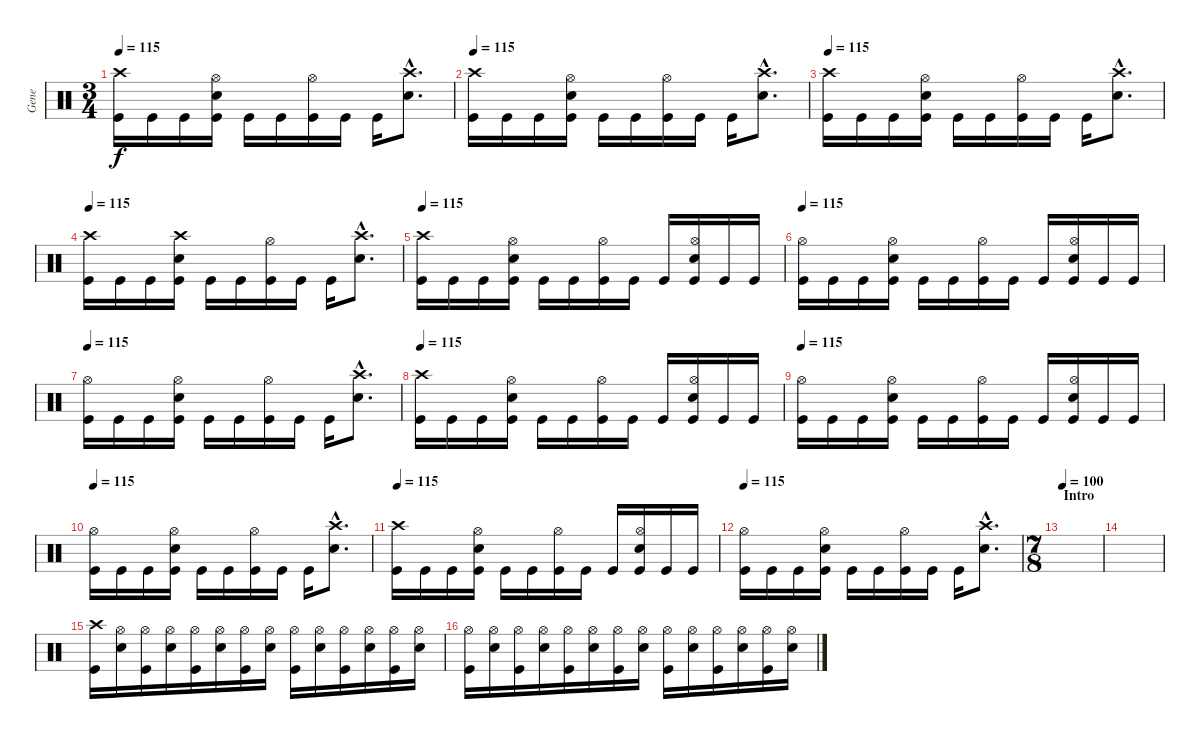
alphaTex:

\track ("Gene" "Gene") {instrument percussion}
\staff {score}
\articulation defaults
\ts (3 4)
\tempo 115
\clef neutral
\ks c
("Crash high (hit)" "Kick (hit)").16{dy f} "Kick (hit)".16 "Kick (hit)".16 ("Hi-Hat (open)" "Snare (hit) 2" "Kick (hit)").16 "Kick (hit)".16 "Kick (hit)".16 ("Hi-Hat (open)" "Kick (hit)").16 "Kick (hit)".16 "Kick (hit)".16 ("Crash high (hit)"{hac} "Snare (hit) 2"{hac}).8{d} |
\tempo 115
("Crash high (hit)" "Kick (hit)").16 "Kick (hit)".16 "Kick (hit)".16 ("Hi-Hat (open)" "Snare (hit) 2" "Kick (hit)").16 "Kick (hit)".16 "Kick (hit)".16 ("Hi-Hat (open)" "Kick (hit)").16 "Kick (hit)".16 "Kick (hit)".16 ("Crash high (hit)"{hac} "Snare (hit) 2"{hac}).8{d} |
\tempo 115
("Crash high (hit)" "Kick (hit)").16 "Kick (hit)".16 "Kick (hit)".16 ("Hi-Hat (open)" "Snare (hit) 2" "Kick (hit)").16 "Kick (hit)".16 "Kick (hit)".16 ("Hi-Hat (open)" "Kick (hit)").16 "Kick (hit)".16 "Kick (hit)".16 ("Crash high (hit)"{hac} "Snare (hit) 2"{hac}).8{d} |
\tempo 115
("Crash high (hit)" "Kick (hit)").16 "Kick (hit)".16 "Kick (hit)".16 ("Crash high (hit)" "Snare (hit) 2" "Kick (hit)").16 "Kick (hit)".16 "Kick (hit)".16 ("Hi-Hat (open)" "Kick (hit)").16 "Kick (hit)".16 "Kick (hit)".16 ("Crash high (hit)"{hac} "Snare (hit) 2"{hac}).8{d} |
\tempo 115
("Crash high (hit)" "Kick (hit)").16 "Kick (hit)".16 "Kick (hit)".16 ("Hi-Hat (open)" "Snare (hit) 2" "Kick (hit)").16 "Kick (hit)".16 "Kick (hit)".16 ("Hi-Hat (open)" "Kick (hit)").16 "Kick (hit)".16 "Kick (hit)".16 ("Hi-Hat (open)" "Snare (hit) 2" "Kick (hit)").16 "Kick (hit)".16 "Kick (hit)".16 |
\tempo 115
("Hi-Hat (open)" "Kick (hit)").16 "Kick (hit)".16 "Kick (hit)".16 ("Hi-Hat (open)" "Snare (hit) 2" "Kick (hit)").16 "Kick (hit)".16 "Kick (hit)".16 ("Hi-Hat (open)" "Kick (hit)").16 "Kick (hit)".16 "Kick (hit)".16 ("Hi-Hat (open)" "Snare (hit) 2" "Kick (hit)").16 "Kick (hit)".16 "Kick (hit)".16 |
\tempo 115
("Hi-Hat (open)" "Kick (hit)").16 "Kick (hit)".16 "Kick (hit)".16 ("Hi-Hat (open)" "Snare (hit) 2" "Kick (hit)").16 "Kick (hit)".16 "Kick (hit)".16 ("Hi-Hat (open)" "Kick (hit)").16 "Kick (hit)".16 "Kick (hit)".16 ("Crash high (hit)"{hac} "Snare (hit) 2"{hac}).8{d} |
\tempo 115
("Crash high (hit)" "Kick (hit)").16 "Kick (hit)".16 "Kick (hit)".16 ("Hi-Hat (open)" "Snare (hit) 2" "Kick (hit)").16 "Kick (hit)".16 "Kick (hit)".16 ("Hi-Hat (open)" "Kick (hit)").16 "Kick (hit)".16 "Kick (hit)".16 ("Hi-Hat (open)" "Snare (hit) 2" "Kick (hit)").16 "Kick (hit)".16 "Kick (hit)".16 |
\tempo 115
("Hi-Hat (open)" "Kick (hit)").16 "Kick (hit)".16 "Kick (hit)".16 ("Hi-Hat (open)" "Snare (hit) 2" "Kick (hit)").16 "Kick (hit)".16 "Kick (hit)".16 ("Hi-Hat (open)" "Kick (hit)").16 "Kick (hit)".16 "Kick (hit)".16 ("Hi-Hat (open)" "Snare (hit) 2" "Kick (hit)").16 "Kick (hit)".16 "Kick (hit)".16 |
\tempo 115
("Hi-Hat (open)" "Kick (hit)").16 "Kick (hit)".16 "Kick (hit)".16 ("Hi-Hat (open)" "Snare (hit) 2" "Kick (hit)").16 "Kick (hit)".16 "Kick (hit)".16 ("Hi-Hat (open)" "Kick (hit)").16 "Kick (hit)".16 "Kick (hit)".16 ("Crash high (hit)"{hac} "Snare (hit) 2"{hac}).8{d} |
\tempo 115
("Crash high (hit)" "Kick (hit)").16 "Kick (hit)".16 "Kick (hit)".16 ("Hi-Hat (open)" "Snare (hit) 2" "Kick (hit)").16 "Kick (hit)".16 "Kick (hit)".16 ("Hi-Hat (open)" "Kick (hit)").16 "Kick (hit)".16 "Kick (hit)".16 ("Hi-Hat (open)" "Snare (hit) 2" "Kick (hit)").16 "Kick (hit)".16 "Kick (hit)".16 |
\tempo 115
("Hi-Hat (open)" "Kick (hit)").16 "Kick (hit)".16 "Kick (hit)".16 ("Hi-Hat (open)" "Snare (hit) 2" "Kick (hit)").16 "Kick (hit)".16 "Kick (hit)".16 ("Hi-Hat (open)" "Kick (hit)").16 "Kick (hit)".16 "Kick (hit)".16 ("Crash high (hit)"{hac} "Snare (hit) 2"{hac}).8{d} |
\ts (7 8)
\section ("" "Intro")
\tempo 100
|
|
("Crash high (hit)" "Kick (hit)").16 ("Hi-Hat (open)" "Snare (hit) 2").16 ("Hi-Hat (open)" "Kick (hit)").16 ("Hi-Hat (open)" "Snare (hit) 2").16 ("Hi-Hat (open)" "Kick (hit)").16 ("Hi-Hat (open)" "Snare (hit) 2").16 ("Hi-Hat (open)" "Kick (hit)").16 ("Hi-Hat (open)" "Snare (hit) 2").16 ("Hi-Hat (open)" "Kick (hit)").16 ("Hi-Hat (open)" "Snare (hit) 2").16 ("Hi-Hat (open)" "Kick (hit)").16 ("Hi-Hat (open)" "Snare (hit) 2").16 ("Hi-Hat (open)" "Kick (hit)").16 ("Hi-Hat (open)" "Snare (hit) 2").16 |
("Hi-Hat (open)" "Kick (hit)").16 ("Hi-Hat (open)" "Snare (hit) 2").16 ("Hi-Hat (open)" "Kick (hit)").16 ("Hi-Hat (open)" "Snare (hit) 2").16 ("Hi-Hat (open)" "Kick (hit)").16 ("Hi-Hat (open)" "Snare (hit) 2").16 ("Hi-Hat (open)" "Kick (hit)").16 ("Hi-Hat (open)" "Snare (hit) 2").16 ("Hi-Hat (open)" "Kick (hit)").16 ("Hi-Hat (open)" "Snare (hit) 2").16 ("Hi-Hat (open)" "Kick (hit)").16 ("Hi-Hat (open)" "Snare (hit) 2").16 ("Hi-Hat (open)" "Kick (hit)").16 ("Hi-Hat (open)" "Snare (hit) 2").16
